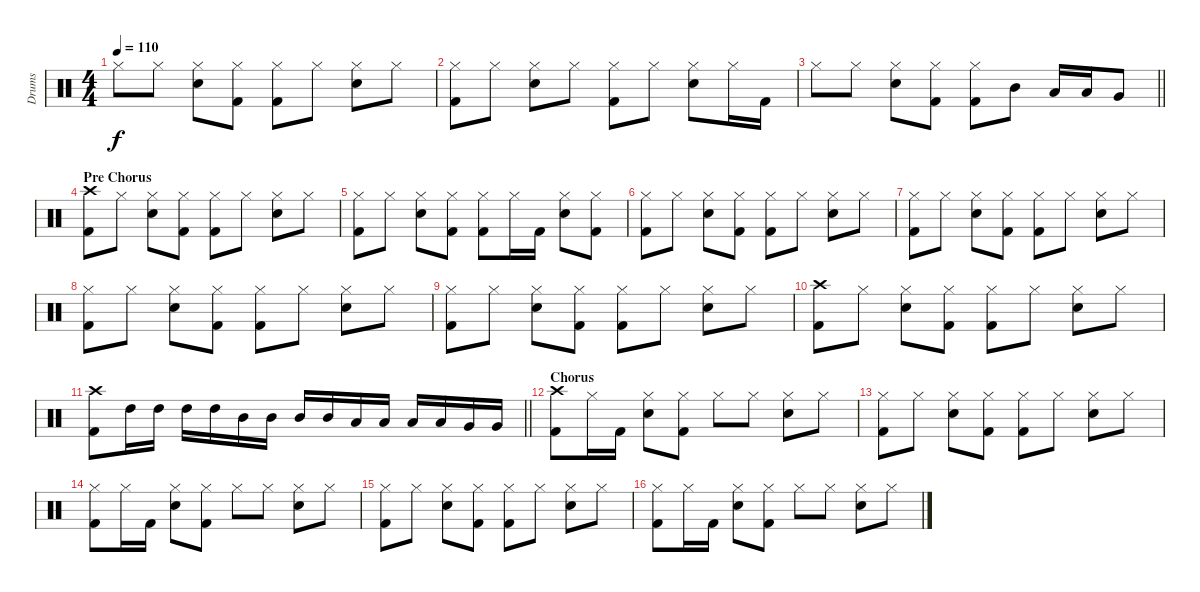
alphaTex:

\track ("Drums" "Drums") {instrument percussion}
\staff {score}
\articulation defaults
\ts (4 4)
\tempo 110
\clef neutral
\ks c "Hi-Hat (closed)".8{dy f} "Hi-Hat (closed)".8
("Hi-Hat (closed)" "Snare (hit) 2").8 ("Hi-Hat (closed)" "Kick (hit) 2").8 ("Hi-Hat (closed)" "Kick (hit) 2").8 "Hi-Hat (closed)".8 ("Hi-Hat (closed)" "Snare (hit) 2").8 "Hi-Hat (closed)".8 |
("Hi-Hat (closed)" "Kick (hit) 2").8 "Hi-Hat (closed)".8 ("Hi-Hat (closed)" "Snare (hit) 2").8 "Hi-Hat (closed)".8 ("Hi-Hat (closed)" "Kick (hit) 2").8 "Hi-Hat (closed)".8 ("Hi-Hat (closed)" "Snare (hit) 2").8 "Hi-Hat (closed)".16 "Kick (hit) 2".16 |
\barLineRight lightlight "Hi-Hat (closed)".8 "Hi-Hat (closed)".8
("Hi-Hat (closed)" "Snare (hit) 2").8 ("Hi-Hat (closed)" "Kick (hit) 2").8 ("Hi-Hat (closed)" "Kick (hit) 2").8 "Mid Tom (hit)".8 "Low Tom (hit)".16 "Low Tom (hit)".16 "Very Low Tom (hit)".8 |
\section ("" "Pre Chorus")
("Crash high (hit)" "Kick (hit) 2").8 "Hi-Hat (closed)".8 ("Hi-Hat (closed)" "Snare (hit) 2").8 ("Hi-Hat (closed)" "Kick (hit) 2").8 ("Hi-Hat (closed)" "Kick (hit) 2").8 "Hi-Hat (closed)".8 ("Hi-Hat (closed)" "Snare (hit) 2").8 "Hi-Hat (closed)".8 |
("Hi-Hat (closed)" "Kick (hit) 2").8 "Hi-Hat (closed)".8 ("Hi-Hat (closed)" "Snare (hit) 2").8 ("Hi-Hat (closed)" "Kick (hit) 2").8 ("Hi-Hat (closed)" "Kick (hit) 2").8 "Hi-Hat (closed)".16 "Kick (hit) 2".16 ("Hi-Hat (closed)" "Snare (hit) 2").8 ("Hi-Hat (closed)" "Kick (hit) 2").8 |
("Hi-Hat (closed)" "Kick (hit) 2").8 "Hi-Hat (closed)".8 ("Hi-Hat (closed)" "Snare (hit) 2").8 ("Hi-Hat (closed)" "Kick (hit) 2").8 ("Hi-Hat (closed)" "Kick (hit) 2").8 "Hi-Hat (closed)".8 ("Hi-Hat (closed)" "Snare (hit) 2").8 "Hi-Hat (closed)".8 |
("Hi-Hat (closed)" "Kick (hit) 2").8 "Hi-Hat (closed)".8 ("Hi-Hat (closed)" "Snare (hit) 2").8 ("Hi-Hat (closed)" "Kick (hit) 2").8 ("Hi-Hat (closed)" "Kick (hit) 2").8 "Hi-Hat (closed)".8 ("Hi-Hat (closed)" "Snare (hit) 2").8 "Hi-Hat (closed)".8 |
("Hi-Hat (closed)" "Kick (hit) 2").8 "Hi-Hat (closed)".8 ("Hi-Hat (closed)" "Snare (hit) 2").8 ("Hi-Hat (closed)" "Kick (hit) 2").8 ("Hi-Hat (closed)" "Kick (hit) 2").8 "Hi-Hat (closed)".8 ("Hi-Hat (closed)" "Snare (hit) 2").8 "Hi-Hat (closed)".8 |
("Hi-Hat (closed)" "Kick (hit) 2").8 "Hi-Hat (closed)".8 ("Hi-Hat (closed)" "Snare (hit) 2").8 ("Hi-Hat (closed)" "Kick (hit) 2").8 ("Hi-Hat (closed)" "Kick (hit) 2").8 "Hi-Hat (closed)".8 ("Hi-Hat (closed)" "Snare (hit) 2").8 "Hi-Hat (closed)".8 |
("Crash high (hit)" "Kick (hit) 2").8 "Hi-Hat (closed)".8 ("Hi-Hat (closed)" "Snare (hit) 2").8 ("Hi-Hat (closed)" "Kick (hit) 2").8 ("Hi-Hat (closed)" "Kick (hit) 2").8 "Hi-Hat (closed)".8 ("Hi-Hat (closed)" "Snare (hit) 2").8 "Hi-Hat (closed)".8 |
\barLineRight lightlight
("Crash high (hit)" "Kick (hit) 2").8 "High Tom (hit)".16 "High Tom (hit)".16 "High Tom (hit)".16 "High Tom (hit)".16 "Mid Tom (hit)".16 "Mid Tom (hit)".16 "Mid Tom (hit)".16 "Mid Tom (hit)".16 "Low Tom (hit)".16 "Low Tom (hit)".16 "Low Tom (hit)".16 "Low Tom (hit)".16 "Very Low Tom (hit)".16 "Very Low Tom (hit)".16 |
\section ("" "Chorus")
("Crash high (hit)" "Kick (hit) 2").8 "Hi-Hat (closed)".16 "Kick (hit) 2".16 ("Hi-Hat (closed)" "Snare (hit) 2").8 ("Hi-Hat (closed)" "Kick (hit) 2").8 "Hi-Hat (closed)".8 "Hi-Hat (closed)".8 ("Hi-Hat (closed)" "Snare (hit) 2").8 "Hi-Hat (closed)".8 |
("Hi-Hat (closed)" "Kick (hit) 2").8 "Hi-Hat (closed)".8 ("Hi-Hat (closed)" "Snare (hit) 2").8 ("Hi-Hat (closed)" "Kick (hit) 2").8 ("Hi-Hat (closed)" "Kick (hit) 2").8 "Hi-Hat (closed)".8 ("Hi-Hat (closed)" "Snare (hit) 2").8 "Hi-Hat (closed)".8 |
("Hi-Hat (closed)" "Kick (hit) 2").8 "Hi-Hat (closed)".16 "Kick (hit) 2".16 ("Hi-Hat (closed)" "Snare (hit) 2").8 ("Hi-Hat (closed)" "Kick (hit) 2").8 "Hi-Hat (closed)".8 "Hi-Hat (closed)".8 ("Hi-Hat (closed)" "Snare (hit) 2").8 "Hi-Hat (closed)".8 |
("Hi-Hat (closed)" "Kick (hit) 2").8 "Hi-Hat (closed)".8 ("Hi-Hat (closed)" "Snare (hit) 2").8 ("Hi-Hat (closed)" "Kick (hit) 2").8 ("Hi-Hat (closed)" "Kick (hit) 2").8 "Hi-Hat (closed)".8 ("Hi-Hat (closed)" "Snare (hit) 2").8 "Hi-Hat (closed)".8 |
("Hi-Hat (closed)" "Kick (hit) 2").8 "Hi-Hat (closed)".16 "Kick (hit) 2".16 ("Hi-Hat (closed)" "Snare (hit) 2").8 ("Hi-Hat (closed)" "Kick (hit) 2").8 "Hi-Hat (closed)".8 "Hi-Hat (closed)".8 ("Hi-Hat (closed)" "Snare (hit) 2").8 "Hi-Hat (closed)".8
